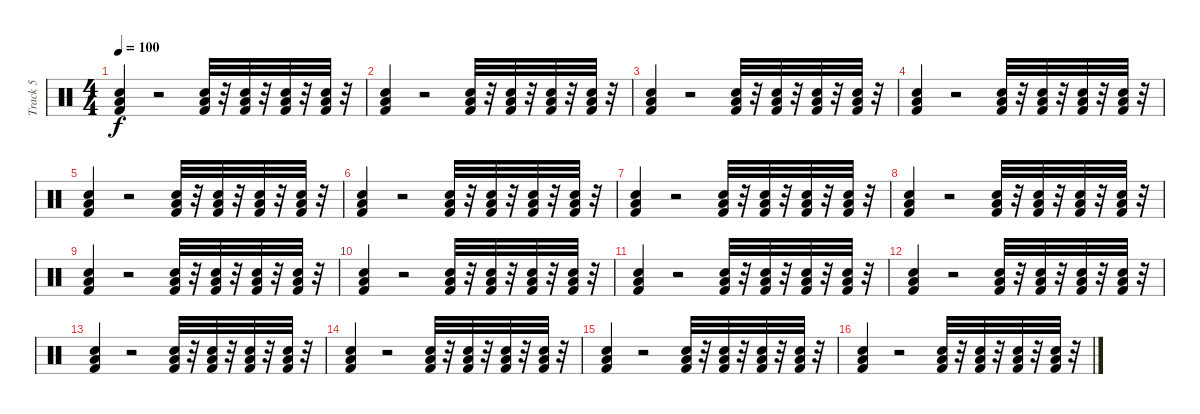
\track ("Track 5" "Track 5") {instrument percussion}
\staff {score}
\articulation defaults
\ts (4 4)
\tempo 100
\clef neutral
\ks c
("Kick (hit) 2" "Low Floor Tom (hit)" "Snare (hit) 2").4{dy f} r.2 ("Snare (hit) 2" "Kick (hit) 2" "Low Floor Tom (hit)").32 r.32 ("Snare (hit) 2" "Kick (hit) 2" "Low Floor Tom (hit)").32 r.32 ("Snare (hit) 2" "Kick (hit) 2" "Low Floor Tom (hit)").32 r.32 ("Snare (hit) 2" "Kick (hit) 2" "Low Floor Tom (hit)").32 r.32 |
("Low Floor Tom (hit)" "Snare (hit) 2" "Kick (hit) 2").4 r.2 ("Snare (hit) 2" "Kick (hit) 2" "Low Floor Tom (hit)").32 r.32 ("Snare (hit) 2" "Kick (hit) 2" "Low Floor Tom (hit)").32 r.32 ("Snare (hit) 2" "Kick (hit) 2" "Low Floor Tom (hit)").32 r.32 ("Snare (hit) 2" "Kick (hit) 2" "Low Floor Tom (hit)").32 r.32 |
("Kick (hit) 2" "Low Floor Tom (hit)" "Snare (hit) 2").4 r.2 ("Snare (hit) 2" "Kick (hit) 2" "Low Floor Tom (hit)").32 r.32 ("Snare (hit) 2" "Kick (hit) 2" "Low Floor Tom (hit)").32 r.32 ("Snare (hit) 2" "Kick (hit) 2" "Low Floor Tom (hit)").32 r.32 ("Snare (hit) 2" "Kick (hit) 2" "Low Floor Tom (hit)").32 r.32 |
("Low Floor Tom (hit)" "Snare (hit) 2" "Kick (hit) 2").4 r.2 ("Snare (hit) 2" "Kick (hit) 2" "Low Floor Tom (hit)").32 r.32 ("Snare (hit) 2" "Kick (hit) 2" "Low Floor Tom (hit)").32 r.32 ("Snare (hit) 2" "Kick (hit) 2" "Low Floor Tom (hit)").32 r.32 ("Snare (hit) 2" "Kick (hit) 2" "Low Floor Tom (hit)").32 r.32 |
("Kick (hit) 2" "Low Floor Tom (hit)" "Snare (hit) 2").4 r.2 ("Snare (hit) 2" "Kick (hit) 2" "Low Floor Tom (hit)").32 r.32 ("Snare (hit) 2" "Kick (hit) 2" "Low Floor Tom (hit)").32 r.32 ("Snare (hit) 2" "Kick (hit) 2" "Low Floor Tom (hit)").32 r.32 ("Snare (hit) 2" "Kick (hit) 2" "Low Floor Tom (hit)").32 r.32 |
("Low Floor Tom (hit)" "Snare (hit) 2" "Kick (hit) 2").4 r.2 ("Snare (hit) 2" "Kick (hit) 2" "Low Floor Tom (hit)").32 r.32 ("Snare (hit) 2" "Kick (hit) 2" "Low Floor Tom (hit)").32 r.32 ("Snare (hit) 2" "Kick (hit) 2" "Low Floor Tom (hit)").32 r.32 ("Snare (hit) 2" "Kick (hit) 2" "Low Floor Tom (hit)").32 r.32 |
("Kick (hit) 2" "Low Floor Tom (hit)" "Snare (hit) 2").4 r.2 ("Snare (hit) 2" "Kick (hit) 2" "Low Floor Tom (hit)").32 r.32 ("Snare (hit) 2" "Kick (hit) 2" "Low Floor Tom (hit)").32 r.32 ("Snare (hit) 2" "Kick (hit) 2" "Low Floor Tom (hit)").32 r.32 ("Snare (hit) 2" "Kick (hit) 2" "Low Floor Tom (hit)").32 r.32 |
("Snare (hit) 2" "Low Floor Tom (hit)" "Kick (hit) 2").4 r.2 ("Snare (hit) 2" "Kick (hit) 2" "Low Floor Tom (hit)").32 r.32 ("Snare (hit) 2" "Kick (hit) 2" "Low Floor Tom (hit)").32 r.32 ("Snare (hit) 2" "Kick (hit) 2" "Low Floor Tom (hit)").32 r.32 ("Snare (hit) 2" "Kick (hit) 2" "Low Floor Tom (hit)").32 r.32 |
("Kick (hit) 2" "Low Floor Tom (hit)" "Snare (hit) 2").4 r.2 ("Snare (hit) 2" "Kick (hit) 2" "Low Floor Tom (hit)").32 r.32 ("Snare (hit) 2" "Kick (hit) 2" "Low Floor Tom (hit)").32 r.32 ("Snare (hit) 2" "Kick (hit) 2" "Low Floor Tom (hit)").32 r.32 ("Snare (hit) 2" "Kick (hit) 2" "Low Floor Tom (hit)").32 r.32 |
("Low Floor Tom (hit)" "Snare (hit) 2" "Kick (hit) 2").4 r.2 ("Snare (hit) 2" "Kick (hit) 2" "Low Floor Tom (hit)").32 r.32 ("Snare (hit) 2" "Kick (hit) 2" "Low Floor Tom (hit)").32 r.32 ("Snare (hit) 2" "Kick (hit) 2" "Low Floor Tom (hit)").32 r.32 ("Snare (hit) 2" "Kick (hit) 2" "Low Floor Tom (hit)").32 r.32 |
("Kick (hit) 2" "Low Floor Tom (hit)" "Snare (hit) 2").4 r.2 ("Snare (hit) 2" "Kick (hit) 2" "Low Floor Tom (hit)").32 r.32 ("Snare (hit) 2" "Kick (hit) 2" "Low Floor Tom (hit)").32 r.32 ("Snare (hit) 2" "Kick (hit) 2" "Low Floor Tom (hit)").32 r.32 ("Snare (hit) 2" "Kick (hit) 2" "Low Floor Tom (hit)").32 r.32 |
("Low Floor Tom (hit)" "Snare (hit) 2" "Kick (hit) 2").4 r.2 ("Snare (hit) 2" "Kick (hit) 2" "Low Floor Tom (hit)").32 r.32 ("Snare (hit) 2" "Kick (hit) 2" "Low Floor Tom (hit)").32 r.32 ("Snare (hit) 2" "Kick (hit) 2" "Low Floor Tom (hit)").32 r.32 ("Snare (hit) 2" "Kick (hit) 2" "Low Floor Tom (hit)").32 r.32 |
("Snare (hit) 2" "Kick (hit) 2" "Low Floor Tom (hit)").4 r.2 ("Snare (hit) 2" "Kick (hit) 2" "Low Floor Tom (hit)").32 r.32 ("Snare (hit) 2" "Kick (hit) 2" "Low Floor Tom (hit)").32 r.32 ("Snare (hit) 2" "Kick (hit) 2" "Low Floor Tom (hit)").32 r.32 ("Snare (hit) 2" "Kick (hit) 2" "Low Floor Tom (hit)").32 r.32 |
("Kick (hit) 2" "Low Floor Tom (hit)" "Snare (hit) 2").4 r.2 ("Snare (hit) 2" "Kick (hit) 2" "Low Floor Tom (hit)").32 r.32 ("Snare (hit) 2" "Kick (hit) 2" "Low Floor Tom (hit)").32 r.32 ("Snare (hit) 2" "Kick (hit) 2" "Low Floor Tom (hit)").32 r.32 ("Snare (hit) 2" "Kick (hit) 2" "Low Floor Tom (hit)").32 r.32 |
("Kick (hit) 2" "Snare (hit) 2" "Low Floor Tom (hit)").4 r.2 ("Snare (hit) 2" "Kick (hit) 2" "Low Floor Tom (hit)").32 r.32 ("Snare (hit) 2" "Kick (hit) 2" "Low Floor Tom (hit)").32 r.32 ("Snare (hit) 2" "Kick (hit) 2" "Low Floor Tom (hit)").32 r.32 ("Snare (hit) 2" "Kick (hit) 2" "Low Floor Tom (hit)").32 r.32 |
("Low Floor Tom (hit)" "Snare (hit) 2" "Kick (hit) 2").4 r.2 ("Snare (hit) 2" "Kick (hit) 2" "Low Floor Tom (hit)").32 r.32 ("Snare (hit) 2" "Kick (hit) 2" "Low Floor Tom (hit)").32 r.32 ("Snare (hit) 2" "Kick (hit) 2" "Low Floor Tom (hit)").32 r.32 ("Snare (hit) 2" "Kick (hit) 2" "Low Floor Tom (hit)").32 r.32
